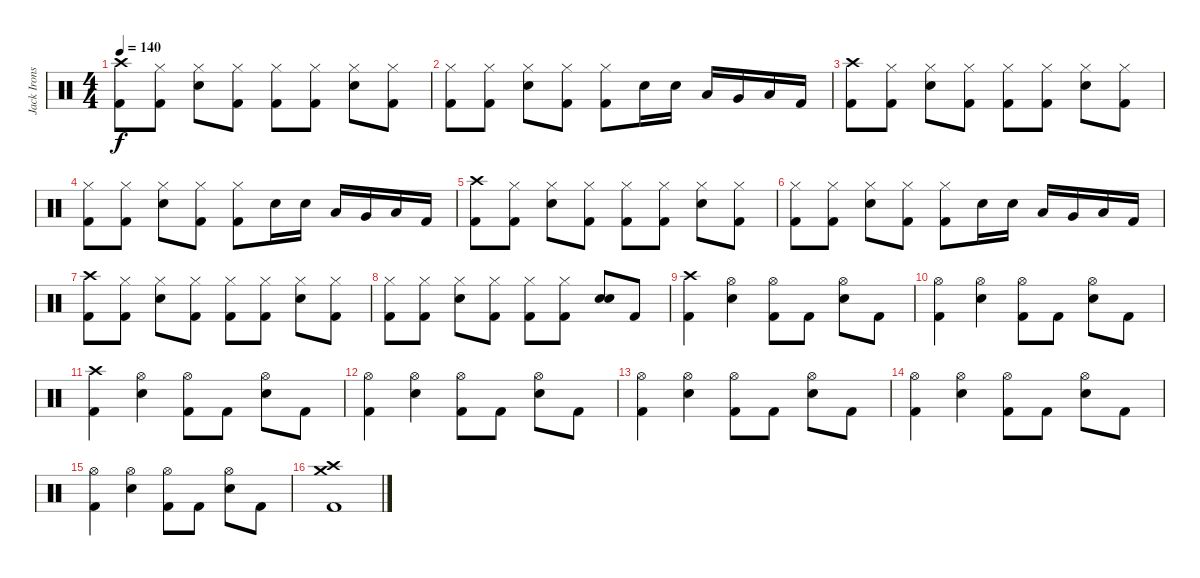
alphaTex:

\track ("Jack Irons" "Jack Irons") {instrument percussion}
\staff {score}
\articulation defaults
\ts (4 4)
\tempo 140
\clef neutral
\ks c
("Crash high (hit)" "Kick (hit) 2").8{dy f} ("Hi-Hat (closed)" "Kick (hit) 2").8 ("Hi-Hat (closed)" "Electric Snare (hit)").8 ("Hi-Hat (closed)" "Kick (hit) 2").8 ("Hi-Hat (closed)" "Kick (hit) 2").8 ("Hi-Hat (closed)" "Kick (hit) 2").8 ("Hi-Hat (closed)" "Electric Snare (hit)").8 ("Hi-Hat (closed)" "Kick (hit) 2").8 |
("Hi-Hat (closed)" "Kick (hit) 2").8 ("Hi-Hat (closed)" "Kick (hit) 2").8 ("Hi-Hat (closed)" "Electric Snare (hit)").8 ("Hi-Hat (closed)" "Kick (hit) 2").8 ("Hi-Hat (closed)" "Kick (hit) 2").8 "Electric Snare (hit)".16 "Electric Snare (hit)".16 "Low Tom (hit)".16 "Very Low Tom (hit)".16 "Low Floor Tom (hit)".16 "Kick (hit) 2".16 |
("Crash high (hit)" "Kick (hit) 2").8 ("Hi-Hat (closed)" "Kick (hit) 2").8 ("Hi-Hat (closed)" "Electric Snare (hit)").8 ("Hi-Hat (closed)" "Kick (hit) 2").8 ("Hi-Hat (closed)" "Kick (hit) 2").8 ("Hi-Hat (closed)" "Kick (hit) 2").8 ("Hi-Hat (closed)" "Electric Snare (hit)").8 ("Hi-Hat (closed)" "Kick (hit) 2").8 |
("Hi-Hat (closed)" "Kick (hit) 2").8 ("Hi-Hat (closed)" "Kick (hit) 2").8 ("Hi-Hat (closed)" "Electric Snare (hit)").8 ("Hi-Hat (closed)" "Kick (hit) 2").8 ("Hi-Hat (closed)" "Kick (hit) 2").8 "Electric Snare (hit)".16 "Electric Snare (hit)".16 "Low Tom (hit)".16 "Very Low Tom (hit)".16 "Low Floor Tom (hit)".16 "Kick (hit) 2".16 |
("Crash high (hit)" "Kick (hit) 2").8 ("Hi-Hat (closed)" "Kick (hit) 2").8 ("Hi-Hat (closed)" "Electric Snare (hit)").8 ("Hi-Hat (closed)" "Kick (hit) 2").8 ("Hi-Hat (closed)" "Kick (hit) 2").8 ("Hi-Hat (closed)" "Kick (hit) 2").8 ("Hi-Hat (closed)" "Electric Snare (hit)").8 ("Hi-Hat (closed)" "Kick (hit) 2").8 |
("Hi-Hat (closed)" "Kick (hit) 2").8 ("Hi-Hat (closed)" "Kick (hit) 2").8 ("Hi-Hat (closed)" "Electric Snare (hit)").8 ("Hi-Hat (closed)" "Kick (hit) 2").8 ("Hi-Hat (closed)" "Kick (hit) 2").8 "Electric Snare (hit)".16 "Electric Snare (hit)".16 "Low Tom (hit)".16 "Very Low Tom (hit)".16 "Low Floor Tom (hit)".16 "Kick (hit) 2".16 |
("Crash high (hit)" "Kick (hit) 2").8 ("Hi-Hat (closed)" "Kick (hit) 2").8 ("Hi-Hat (closed)" "Electric Snare (hit)").8 ("Hi-Hat (closed)" "Kick (hit) 2").8 ("Hi-Hat (closed)" "Kick (hit) 2").8 ("Hi-Hat (closed)" "Kick (hit) 2").8 ("Hi-Hat (closed)" "Electric Snare (hit)").8 ("Hi-Hat (closed)" "Kick (hit) 2").8 |
("Hi-Hat (closed)" "Kick (hit) 2").8 ("Hi-Hat (closed)" "Kick (hit) 2").8 ("Hi-Hat (closed)" "Electric Snare (hit)").8 ("Hi-Hat (closed)" "Kick (hit) 2").8 ("Hi-Hat (closed)" "Kick (hit) 2").8 ("Hi-Hat (closed)" "Kick (hit) 2").8 ("Electric Snare (hit)" "Electric Snare (hit)").8 "Kick (hit) 2".8 |
("Crash high (hit)" "Kick (hit) 2").4 ("Hi-Hat (open)" "Electric Snare (hit)").4 ("Hi-Hat (open)" "Kick (hit) 2").8 "Kick (hit) 2".8 ("Hi-Hat (open)" "Electric Snare (hit)").8 "Kick (hit) 2".8 |
("Hi-Hat (open)" "Kick (hit) 2").4 ("Hi-Hat (open)" "Electric Snare (hit)").4 ("Hi-Hat (open)" "Kick (hit) 2").8 "Kick (hit) 2".8 ("Hi-Hat (open)" "Electric Snare (hit)").8 "Kick (hit) 2".8 |
("Crash high (hit)" "Kick (hit) 2").4 ("Hi-Hat (open)" "Electric Snare (hit)").4 ("Hi-Hat (open)" "Kick (hit) 2").8 "Kick (hit) 2".8 ("Hi-Hat (open)" "Electric Snare (hit)").8 "Kick (hit) 2".8 |
("Hi-Hat (open)" "Kick (hit) 2").4 ("Hi-Hat (open)" "Electric Snare (hit)").4 ("Hi-Hat (open)" "Kick (hit) 2").8 "Kick (hit) 2".8 ("Hi-Hat (open)" "Electric Snare (hit)").8 "Kick (hit) 2".8 |
("Hi-Hat (open)" "Kick (hit) 2").4 ("Hi-Hat (open)" "Electric Snare (hit)").4 ("Hi-Hat (open)" "Kick (hit) 2").8 "Kick (hit) 2".8 ("Hi-Hat (open)" "Electric Snare (hit)").8 "Kick (hit) 2".8 |
("Hi-Hat (open)" "Kick (hit) 2").4 ("Hi-Hat (open)" "Electric Snare (hit)").4 ("Hi-Hat (open)" "Kick (hit) 2").8 "Kick (hit) 2".8 ("Hi-Hat (open)" "Electric Snare (hit)").8 "Kick (hit) 2".8 |
("Hi-Hat (open)" "Kick (hit) 2").4 ("Hi-Hat (open)" "Electric Snare (hit)").4 ("Hi-Hat (open)" "Kick (hit) 2").8 "Kick (hit) 2".8 ("Hi-Hat (open)" "Electric Snare (hit)").8 "Kick (hit) 2".8 |
("Crash high (hit)" "Crash medium (hit)" "Kick (hit) 2").1
